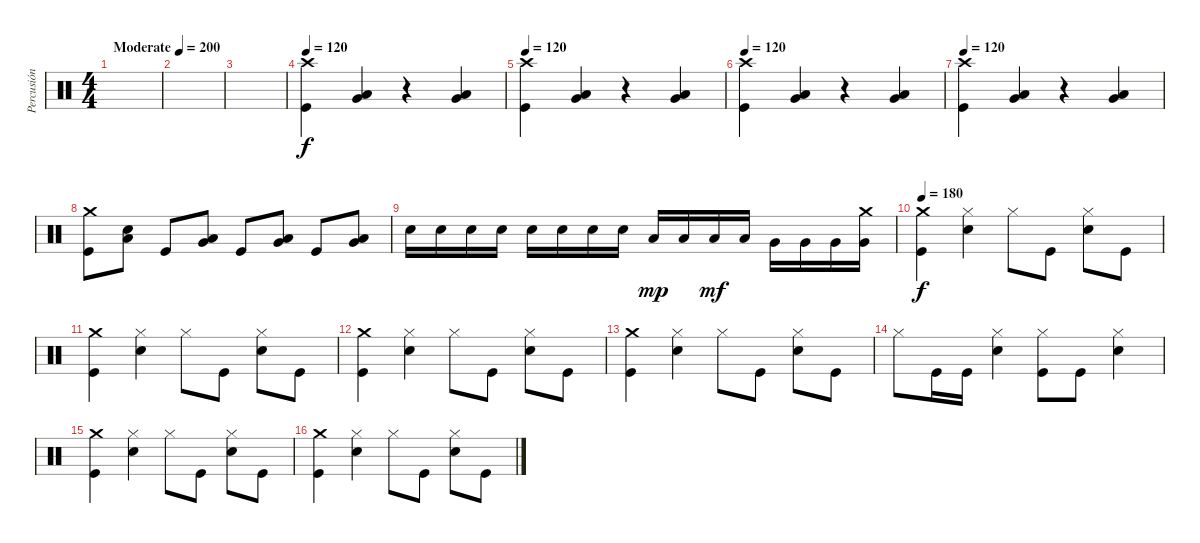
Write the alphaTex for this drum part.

\track ("Percusión" "Percusión") {instrument percussion}
\staff {score}
\articulation defaults
\ts (4 4)
\tempo (200 "Moderate")
\clef neutral
\ks c
|
|
|
\tempo 120
("Crash high (hit)" "Kick (hit)").4 ("Very Low Tom (hit)" "Low Floor Tom (hit)").4 r.4 ("Very Low Tom (hit)" "Low Floor Tom (hit)").4 |
\tempo 120
("Crash high (hit)" "Kick (hit)").4 ("Very Low Tom (hit)" "Low Floor Tom (hit)").4 r.4 ("Very Low Tom (hit)" "Low Floor Tom (hit)").4 |
\tempo 120
("Crash high (hit)" "Kick (hit)").4 ("Very Low Tom (hit)" "Low Floor Tom (hit)").4 r.4 ("Very Low Tom (hit)" "Low Floor Tom (hit)").4 |
\tempo 120
("Crash high (hit)" "Kick (hit)").4 ("Very Low Tom (hit)" "Low Floor Tom (hit)").4 r.4 ("Very Low Tom (hit)" "Low Floor Tom (hit)").4 |
("Crash medium (hit)" "Kick (hit)").8{dy f} ("Snare (hit)" "Low Floor Tom (hit)").8 "Kick (hit)".8 ("Very Low Tom (hit)" "Low Floor Tom (hit)").8 "Kick (hit)".8 ("Very Low Tom (hit)" "Low Floor Tom (hit)").8 "Kick (hit)".8 ("Very Low Tom (hit)" "Low Floor Tom (hit)").8 |
"Electric Snare (hit)".16 "Electric Snare (hit)".16 "Electric Snare (hit)".16 "Electric Snare (hit)".16 "Electric Snare (hit)".16 "Electric Snare (hit)".16 "Electric Snare (hit)".16 "Electric Snare (hit)".16 "Low Tom (hit)".16{dy mp} "Low Tom (hit)".16 "Low Tom (hit)".16{dy mf} "Low Tom (hit)".16 "Very Low Tom (hit)".16 "Very Low Tom (hit)".16 "Very Low Tom (hit)".16 ("Very Low Tom (hit)" "Crash medium (hit)").16 |
\tempo 180
("Kick (hit)" "Crash medium (hit)").4{dy f} ("Snare (hit) 2" "Hi-Hat (closed)").4 "Hi-Hat (closed)".8 "Kick (hit)".8 ("Snare (hit) 2" "Hi-Hat (closed)").8 "Kick (hit)".8 |
("Kick (hit)" "Crash medium (hit)").4 ("Snare (hit) 2" "Hi-Hat (closed)").4 "Hi-Hat (closed)".8 "Kick (hit)".8 ("Snare (hit) 2" "Hi-Hat (closed)").8 "Kick (hit)".8 |
("Kick (hit)" "Crash medium (hit)").4 ("Snare (hit) 2" "Hi-Hat (closed)").4 "Hi-Hat (closed)".8 "Kick (hit)".8 ("Snare (hit) 2" "Hi-Hat (closed)").8 "Kick (hit)".8 |
("Kick (hit)" "Crash medium (hit)").4 ("Snare (hit) 2" "Hi-Hat (closed)").4 "Hi-Hat (closed)".8 "Kick (hit)".8 ("Snare (hit) 2" "Hi-Hat (closed)").8 "Kick (hit)".8 |
"Hi-Hat (closed)".8 "Kick (hit)".16 "Kick (hit)".16 ("Snare (hit) 2" "Hi-Hat (closed)").4 ("Kick (hit)" "Hi-Hat (closed)").8 "Kick (hit)".8 ("Snare (hit) 2" "Hi-Hat (closed)").4 |
("Kick (hit)" "Crash medium (hit)").4 ("Snare (hit) 2" "Hi-Hat (closed)").4 "Hi-Hat (closed)".8 "Kick (hit)".8 ("Snare (hit) 2" "Hi-Hat (closed)").8 "Kick (hit)".8 |
("Kick (hit)" "Crash medium (hit)").4 ("Snare (hit) 2" "Hi-Hat (closed)").4 "Hi-Hat (closed)".8 "Kick (hit)".8 ("Snare (hit) 2" "Hi-Hat (closed)").8 "Kick (hit)".8
